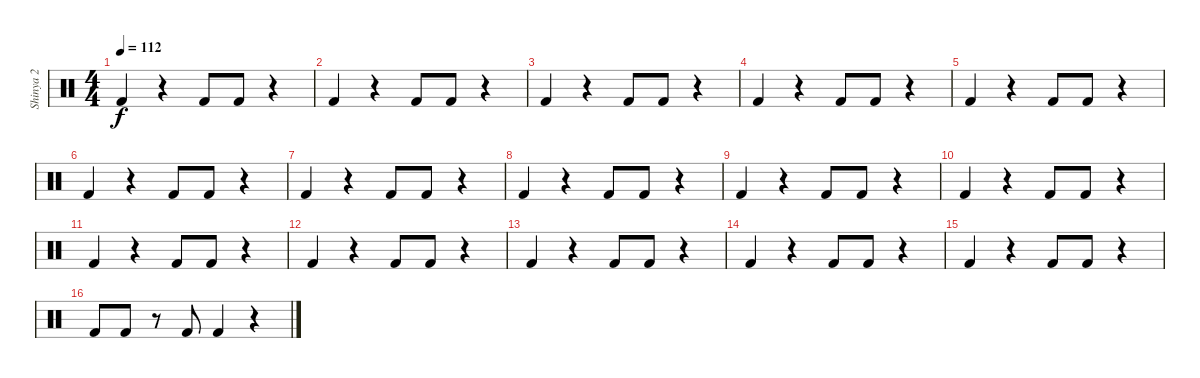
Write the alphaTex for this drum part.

\track ("Shinya 2" "Shinya 2") {instrument percussion}
\staff {score}
\articulation defaults
\ts (4 4)
\tempo 112
\clef neutral
\ks c "Kick (hit) 2".4{dy f}
r.4 "Kick (hit) 2".8 "Kick (hit) 2".8 r.4 |
"Kick (hit) 2".4 r.4 "Kick (hit) 2".8 "Kick (hit) 2".8 r.4 |
"Kick (hit) 2".4 r.4 "Kick (hit) 2".8 "Kick (hit) 2".8 r.4 |
"Kick (hit) 2".4 r.4 "Kick (hit) 2".8 "Kick (hit) 2".8 r.4 |
"Kick (hit) 2".4 r.4 "Kick (hit) 2".8 "Kick (hit) 2".8 r.4 |
"Kick (hit) 2".4 r.4 "Kick (hit) 2".8 "Kick (hit) 2".8 r.4 |
"Kick (hit) 2".4 r.4 "Kick (hit) 2".8 "Kick (hit) 2".8 r.4 |
"Kick (hit) 2".4 r.4 "Kick (hit) 2".8 "Kick (hit) 2".8 r.4 |
"Kick (hit) 2".4 r.4 "Kick (hit) 2".8 "Kick (hit) 2".8 r.4 |
"Kick (hit) 2".4 r.4 "Kick (hit) 2".8 "Kick (hit) 2".8 r.4 |
"Kick (hit) 2".4 r.4 "Kick (hit) 2".8 "Kick (hit) 2".8 r.4 |
"Kick (hit) 2".4 r.4 "Kick (hit) 2".8 "Kick (hit) 2".8 r.4 |
"Kick (hit) 2".4 r.4 "Kick (hit) 2".8 "Kick (hit) 2".8 r.4 |
"Kick (hit) 2".4 r.4 "Kick (hit) 2".8 "Kick (hit) 2".8 r.4 |
"Kick (hit) 2".4 r.4 "Kick (hit) 2".8 "Kick (hit) 2".8 r.4 |
"Kick (hit) 2".8 "Kick (hit) 2".8 r.8 "Kick (hit) 2".8 "Kick (hit) 2".4 r.4
